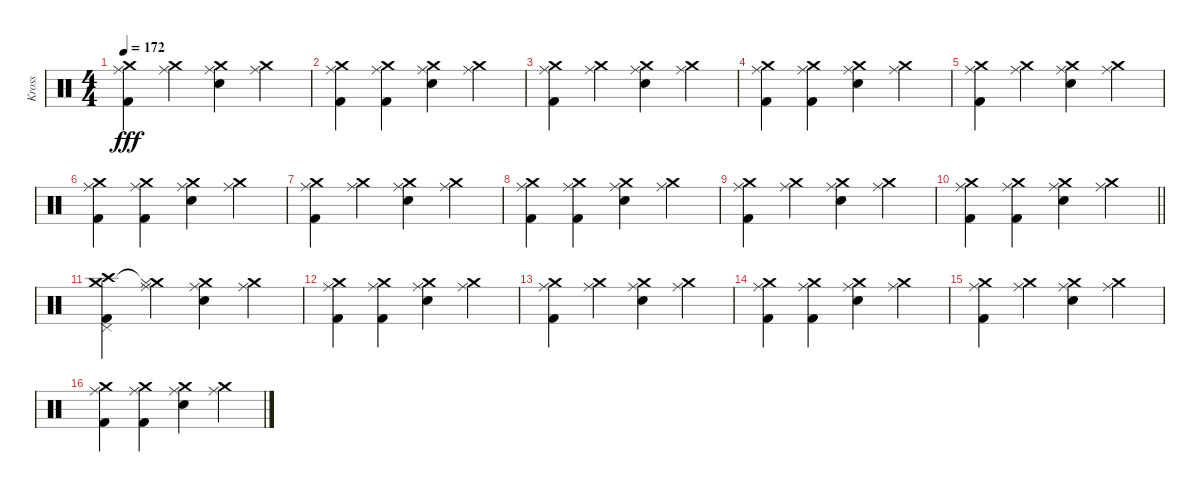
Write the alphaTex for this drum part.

\track ("Kross" "Kross") {instrument percussion}
\staff {score}
\articulation defaults
\ts (4 4)
\tempo 172
\clef neutral
\ks c
("Crash medium (hit)" "Ride (middle)" "Kick (hit) 2").4{dy fff} ("Crash medium (hit)" "Ride (middle)").4 ("Crash medium (hit)" "Ride (middle)" "Snare (hit) 2").4 ("Crash medium (hit)" "Ride (middle)").4 |
("Crash medium (hit)" "Ride (middle)" "Kick (hit) 2").4 ("Crash medium (hit)" "Ride (middle)" "Kick (hit) 2").4 ("Crash medium (hit)" "Ride (middle)" "Snare (hit) 2").4 ("Crash medium (hit)" "Ride (middle)").4 |
("Crash medium (hit)" "Ride (middle)" "Kick (hit) 2").4 ("Crash medium (hit)" "Ride (middle)").4 ("Crash medium (hit)" "Ride (middle)" "Snare (hit) 2").4 ("Crash medium (hit)" "Ride (middle)").4 |
("Crash medium (hit)" "Ride (middle)" "Kick (hit) 2").4 ("Crash medium (hit)" "Ride (middle)" "Kick (hit) 2").4 ("Crash medium (hit)" "Ride (middle)" "Snare (hit) 2").4 ("Crash medium (hit)" "Ride (middle)").4 |
("Crash medium (hit)" "Ride (middle)" "Kick (hit) 2").4 ("Crash medium (hit)" "Ride (middle)").4 ("Crash medium (hit)" "Ride (middle)" "Snare (hit) 2").4 ("Crash medium (hit)" "Ride (middle)").4 |
("Crash medium (hit)" "Ride (middle)" "Kick (hit) 2").4 ("Crash medium (hit)" "Ride (middle)" "Kick (hit) 2").4 ("Crash medium (hit)" "Ride (middle)" "Snare (hit) 2").4 ("Crash medium (hit)" "Ride (middle)").4 |
("Crash medium (hit)" "Ride (middle)" "Kick (hit) 2").4 ("Crash medium (hit)" "Ride (middle)").4 ("Crash medium (hit)" "Ride (middle)" "Snare (hit) 2").4 ("Crash medium (hit)" "Ride (middle)").4 |
("Crash medium (hit)" "Ride (middle)" "Kick (hit) 2").4 ("Crash medium (hit)" "Ride (middle)" "Kick (hit) 2").4 ("Crash medium (hit)" "Ride (middle)" "Snare (hit) 2").4 ("Crash medium (hit)" "Ride (middle)").4 |
("Crash medium (hit)" "Ride (middle)" "Kick (hit) 2").4 ("Crash medium (hit)" "Ride (middle)").4 ("Crash medium (hit)" "Ride (middle)" "Snare (hit) 2").4 ("Crash medium (hit)" "Ride (middle)").4 |
\barLineRight lightlight
("Crash medium (hit)" "Ride (middle)" "Kick (hit) 2").4 ("Crash medium (hit)" "Ride (middle)" "Kick (hit) 2").4 ("Crash medium (hit)" "Ride (middle)" "Snare (hit) 2").4 ("Crash medium (hit)" "Ride (middle)").4 |
("Crash high (hit)" "Crash medium (hit)" "Pedal Hi-Hat (hit)" "Kick (hit) 2").4 ("Crash medium (hit)" "Hi-Hat (closed)"{t} "Ride (middle)").4 ("Crash medium (hit)" "Ride (middle)" "Snare (hit) 2").4 ("Crash medium (hit)" "Ride (middle)").4 |
("Crash medium (hit)" "Ride (middle)" "Kick (hit) 2").4 ("Crash medium (hit)" "Ride (middle)" "Kick (hit) 2").4 ("Crash medium (hit)" "Ride (middle)" "Snare (hit) 2").4 ("Crash medium (hit)" "Ride (middle)").4 |
("Crash medium (hit)" "Ride (middle)" "Kick (hit) 2").4 ("Crash medium (hit)" "Ride (middle)").4 ("Crash medium (hit)" "Ride (middle)" "Snare (hit) 2").4 ("Crash medium (hit)" "Ride (middle)").4 |
("Crash medium (hit)" "Ride (middle)" "Kick (hit) 2").4 ("Crash medium (hit)" "Ride (middle)" "Kick (hit) 2").4 ("Crash medium (hit)" "Ride (middle)" "Snare (hit) 2").4 ("Crash medium (hit)" "Ride (middle)").4 |
("Crash medium (hit)" "Ride (middle)" "Kick (hit) 2").4 ("Crash medium (hit)" "Ride (middle)").4 ("Crash medium (hit)" "Ride (middle)" "Snare (hit) 2").4 ("Crash medium (hit)" "Ride (middle)").4 |
("Crash medium (hit)" "Ride (middle)" "Kick (hit) 2").4 ("Crash medium (hit)" "Ride (middle)" "Kick (hit) 2").4 ("Crash medium (hit)" "Ride (middle)" "Snare (hit) 2").4 ("Crash medium (hit)" "Ride (middle)").4
